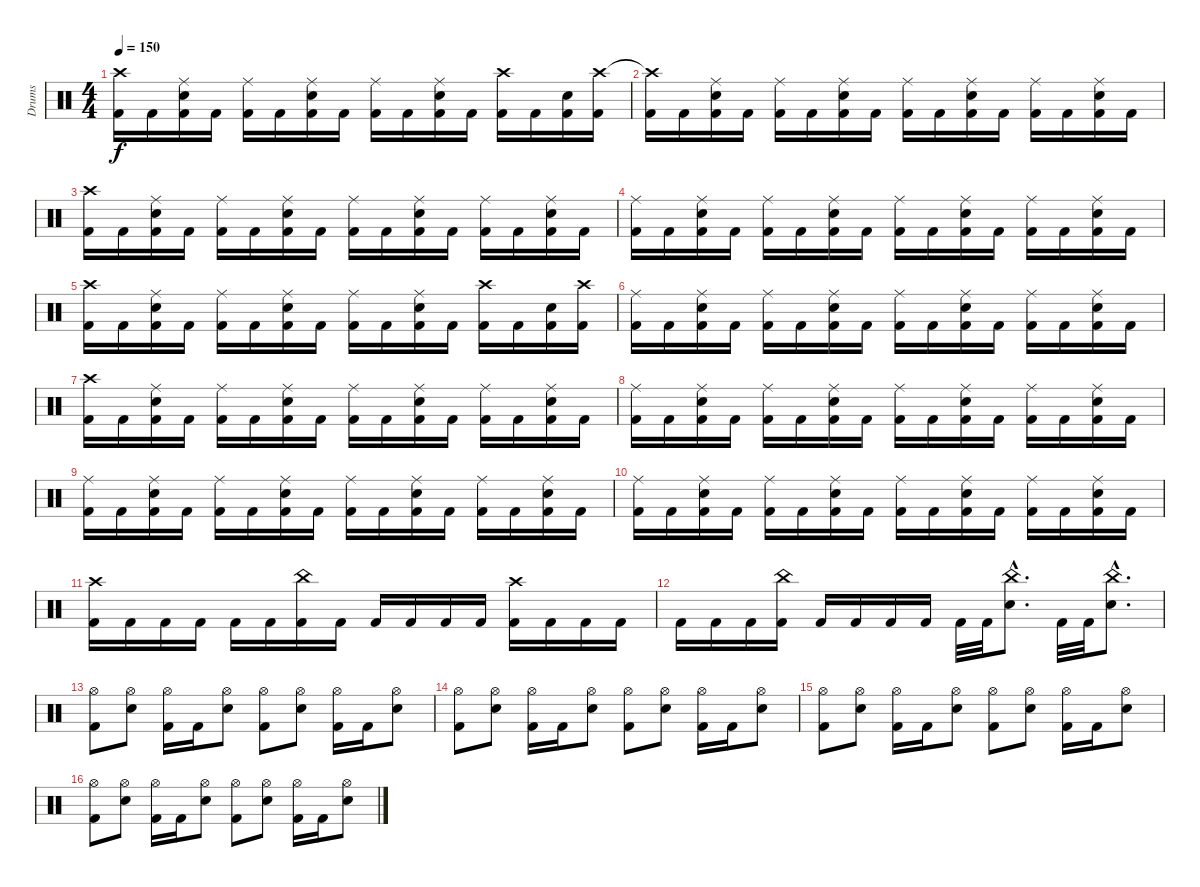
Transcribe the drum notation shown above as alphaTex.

\track ("Drums" "Drums") {instrument percussion}
\staff {score}
\articulation defaults
\ts (4 4)
\tempo 150
\clef neutral
\ks c
("Crash high (hit)" "Kick (hit) 2").16{dy f} "Kick (hit) 2".16 ("Ride (middle)" "Snare (hit) 2" "Kick (hit) 2").16 "Kick (hit) 2".16 ("Ride (middle)" "Kick (hit) 2").16 "Kick (hit) 2".16 ("Ride (middle)" "Snare (hit) 2" "Kick (hit) 2").16 "Kick (hit) 2".16 ("Ride (middle)" "Kick (hit) 2").16 "Kick (hit) 2".16 ("Ride (middle)" "Snare (hit) 2" "Kick (hit) 2").16 "Kick (hit) 2".16 ("Crash high (hit)" "Kick (hit) 2").16 "Kick (hit) 2".16 ("Snare (hit) 2" "Kick (hit) 2").16 ("Crash high (hit)" "Kick (hit) 2").16 |
("Crash high (hit)"{t} "Kick (hit) 2").16 "Kick (hit) 2".16 ("Ride (middle)" "Snare (hit) 2" "Kick (hit) 2").16 "Kick (hit) 2".16 ("Ride (middle)" "Kick (hit) 2").16 "Kick (hit) 2".16 ("Ride (middle)" "Snare (hit) 2" "Kick (hit) 2").16 "Kick (hit) 2".16 ("Ride (middle)" "Kick (hit) 2").16 "Kick (hit) 2".16 ("Ride (middle)" "Snare (hit) 2" "Kick (hit) 2").16 "Kick (hit) 2".16 ("Ride (middle)" "Kick (hit) 2").16 "Kick (hit) 2".16 ("Ride (middle)" "Snare (hit) 2" "Kick (hit) 2").16 "Kick (hit) 2".16 |
("Crash high (hit)" "Kick (hit) 2").16 "Kick (hit) 2".16 ("Ride (middle)" "Snare (hit) 2" "Kick (hit) 2").16 "Kick (hit) 2".16 ("Ride (middle)" "Kick (hit) 2").16 "Kick (hit) 2".16 ("Ride (middle)" "Snare (hit) 2" "Kick (hit) 2").16 "Kick (hit) 2".16 ("Ride (middle)" "Kick (hit) 2").16 "Kick (hit) 2".16 ("Ride (middle)" "Snare (hit) 2" "Kick (hit) 2").16 "Kick (hit) 2".16 ("Ride (middle)" "Kick (hit) 2").16 "Kick (hit) 2".16 ("Ride (middle)" "Snare (hit) 2" "Kick (hit) 2").16 "Kick (hit) 2".16 |
("Ride (middle)" "Kick (hit) 2").16 "Kick (hit) 2".16 ("Ride (middle)" "Snare (hit) 2" "Kick (hit) 2").16 "Kick (hit) 2".16 ("Ride (middle)" "Kick (hit) 2").16 "Kick (hit) 2".16 ("Ride (middle)" "Snare (hit) 2" "Kick (hit) 2").16 "Kick (hit) 2".16 ("Ride (middle)" "Kick (hit) 2").16 "Kick (hit) 2".16 ("Ride (middle)" "Snare (hit) 2" "Kick (hit) 2").16 "Kick (hit) 2".16 ("Ride (middle)" "Kick (hit) 2").16 "Kick (hit) 2".16 ("Ride (middle)" "Snare (hit) 2" "Kick (hit) 2").16 "Kick (hit) 2".16 |
("Crash high (hit)" "Kick (hit) 2").16 "Kick (hit) 2".16 ("Ride (middle)" "Snare (hit) 2" "Kick (hit) 2").16 "Kick (hit) 2".16 ("Ride (middle)" "Kick (hit) 2").16 "Kick (hit) 2".16 ("Ride (middle)" "Snare (hit) 2" "Kick (hit) 2").16 "Kick (hit) 2".16 ("Ride (middle)" "Kick (hit) 2").16 "Kick (hit) 2".16 ("Ride (middle)" "Snare (hit) 2" "Kick (hit) 2").16 "Kick (hit) 2".16 ("Crash high (hit)" "Kick (hit) 2").16 "Kick (hit) 2".16 ("Snare (hit) 2" "Kick (hit) 2").16 ("Crash high (hit)" "Kick (hit) 2").16 |
("Ride (middle)" "Kick (hit) 2").16 "Kick (hit) 2".16 ("Ride (middle)" "Snare (hit) 2" "Kick (hit) 2").16 "Kick (hit) 2".16 ("Ride (middle)" "Kick (hit) 2").16 "Kick (hit) 2".16 ("Ride (middle)" "Snare (hit) 2" "Kick (hit) 2").16 "Kick (hit) 2".16 ("Ride (middle)" "Kick (hit) 2").16 "Kick (hit) 2".16 ("Ride (middle)" "Snare (hit) 2" "Kick (hit) 2").16 "Kick (hit) 2".16 ("Ride (middle)" "Kick (hit) 2").16 "Kick (hit) 2".16 ("Ride (middle)" "Snare (hit) 2" "Kick (hit) 2").16 "Kick (hit) 2".16 |
("Crash high (hit)" "Kick (hit) 2").16 "Kick (hit) 2".16 ("Ride (middle)" "Snare (hit) 2" "Kick (hit) 2").16 "Kick (hit) 2".16 ("Ride (middle)" "Kick (hit) 2").16 "Kick (hit) 2".16 ("Ride (middle)" "Snare (hit) 2" "Kick (hit) 2").16 "Kick (hit) 2".16 ("Ride (middle)" "Kick (hit) 2").16 "Kick (hit) 2".16 ("Ride (middle)" "Snare (hit) 2" "Kick (hit) 2").16 "Kick (hit) 2".16 ("Ride (middle)" "Kick (hit) 2").16 "Kick (hit) 2".16 ("Ride (middle)" "Snare (hit) 2" "Kick (hit) 2").16 "Kick (hit) 2".16 |
("Ride (middle)" "Kick (hit) 2").16 "Kick (hit) 2".16 ("Ride (middle)" "Snare (hit) 2" "Kick (hit) 2").16 "Kick (hit) 2".16 ("Ride (middle)" "Kick (hit) 2").16 "Kick (hit) 2".16 ("Ride (middle)" "Snare (hit) 2" "Kick (hit) 2").16 "Kick (hit) 2".16 ("Ride (middle)" "Kick (hit) 2").16 "Kick (hit) 2".16 ("Ride (middle)" "Snare (hit) 2" "Kick (hit) 2").16 "Kick (hit) 2".16 ("Ride (middle)" "Kick (hit) 2").16 "Kick (hit) 2".16 ("Ride (middle)" "Snare (hit) 2" "Kick (hit) 2").16 "Kick (hit) 2".16 |
("Ride (middle)" "Kick (hit) 2").16 "Kick (hit) 2".16 ("Ride (middle)" "Snare (hit) 2" "Kick (hit) 2").16 "Kick (hit) 2".16 ("Ride (middle)" "Kick (hit) 2").16 "Kick (hit) 2".16 ("Ride (middle)" "Snare (hit) 2" "Kick (hit) 2").16 "Kick (hit) 2".16 ("Ride (middle)" "Kick (hit) 2").16 "Kick (hit) 2".16 ("Ride (middle)" "Snare (hit) 2" "Kick (hit) 2").16 "Kick (hit) 2".16 ("Ride (middle)" "Kick (hit) 2").16 "Kick (hit) 2".16 ("Ride (middle)" "Snare (hit) 2" "Kick (hit) 2").16 "Kick (hit) 2".16 |
("Ride (middle)" "Kick (hit) 2").16 "Kick (hit) 2".16 ("Ride (middle)" "Snare (hit) 2" "Kick (hit) 2").16 "Kick (hit) 2".16 ("Ride (middle)" "Kick (hit) 2").16 "Kick (hit) 2".16 ("Ride (middle)" "Snare (hit) 2" "Kick (hit) 2").16 "Kick (hit) 2".16 ("Ride (middle)" "Kick (hit) 2").16 "Kick (hit) 2".16 ("Ride (middle)" "Snare (hit) 2" "Kick (hit) 2").16 "Kick (hit) 2".16 ("Ride (middle)" "Kick (hit) 2").16 "Kick (hit) 2".16 ("Ride (middle)" "Snare (hit) 2" "Kick (hit) 2").16 "Kick (hit) 2".16 |
("Crash high (hit)" "Kick (hit) 2").16 "Kick (hit) 2".16 "Kick (hit) 2".16 "Kick (hit) 2".16 "Kick (hit) 2".16 "Kick (hit) 2".16 ("China (hit)" "Kick (hit) 2").16 "Kick (hit) 2".16 "Kick (hit) 2".16 "Kick (hit) 2".16 "Kick (hit) 2".16 "Kick (hit) 2".16 ("Crash high (hit)" "Kick (hit) 2").16 "Kick (hit) 2".16 "Kick (hit) 2".16 "Kick (hit) 2".16 |
"Kick (hit) 2".16 "Kick (hit) 2".16 "Kick (hit) 2".16 ("China (hit)" "Kick (hit) 2").16 "Kick (hit) 2".16 "Kick (hit) 2".16 "Kick (hit) 2".16 "Kick (hit) 2".16 "Kick (hit) 2".32 "Kick (hit) 2".32 ("China (hit)"{hac} "Snare (hit) 2"{hac}).8{d} "Kick (hit) 2".32 "Kick (hit) 2".32 ("China (hit)"{hac} "Snare (hit) 2"{hac}).8{d} |
("Hi-Hat (open)" "Kick (hit) 2").8 ("Hi-Hat (open)" "Snare (hit) 2").8 ("Hi-Hat (open)" "Kick (hit) 2").16 "Kick (hit) 2".16 ("Hi-Hat (open)" "Snare (hit) 2").8 ("Hi-Hat (open)" "Kick (hit) 2").8 ("Hi-Hat (open)" "Snare (hit) 2").8 ("Hi-Hat (open)" "Kick (hit) 2").16 "Kick (hit) 2".16 ("Hi-Hat (open)" "Snare (hit) 2").8 |
("Hi-Hat (open)" "Kick (hit) 2").8 ("Hi-Hat (open)" "Snare (hit) 2").8 ("Hi-Hat (open)" "Kick (hit) 2").16 "Kick (hit) 2".16 ("Hi-Hat (open)" "Snare (hit) 2").8 ("Hi-Hat (open)" "Kick (hit) 2").8 ("Hi-Hat (open)" "Snare (hit) 2").8 ("Hi-Hat (open)" "Kick (hit) 2").16 "Kick (hit) 2".16 ("Hi-Hat (open)" "Snare (hit) 2").8 |
("Hi-Hat (open)" "Kick (hit) 2").8 ("Hi-Hat (open)" "Snare (hit) 2").8 ("Hi-Hat (open)" "Kick (hit) 2").16 "Kick (hit) 2".16 ("Hi-Hat (open)" "Snare (hit) 2").8 ("Hi-Hat (open)" "Kick (hit) 2").8 ("Hi-Hat (open)" "Snare (hit) 2").8 ("Hi-Hat (open)" "Kick (hit) 2").16 "Kick (hit) 2".16 ("Hi-Hat (open)" "Snare (hit) 2").8 |
("Hi-Hat (open)" "Kick (hit) 2").8 ("Hi-Hat (open)" "Snare (hit) 2").8 ("Hi-Hat (open)" "Kick (hit) 2").16 "Kick (hit) 2".16 ("Hi-Hat (open)" "Snare (hit) 2").8 ("Hi-Hat (open)" "Kick (hit) 2").8 ("Hi-Hat (open)" "Snare (hit) 2").8 ("Hi-Hat (open)" "Kick (hit) 2").16 "Kick (hit) 2".16 ("Hi-Hat (open)" "Snare (hit) 2").8
